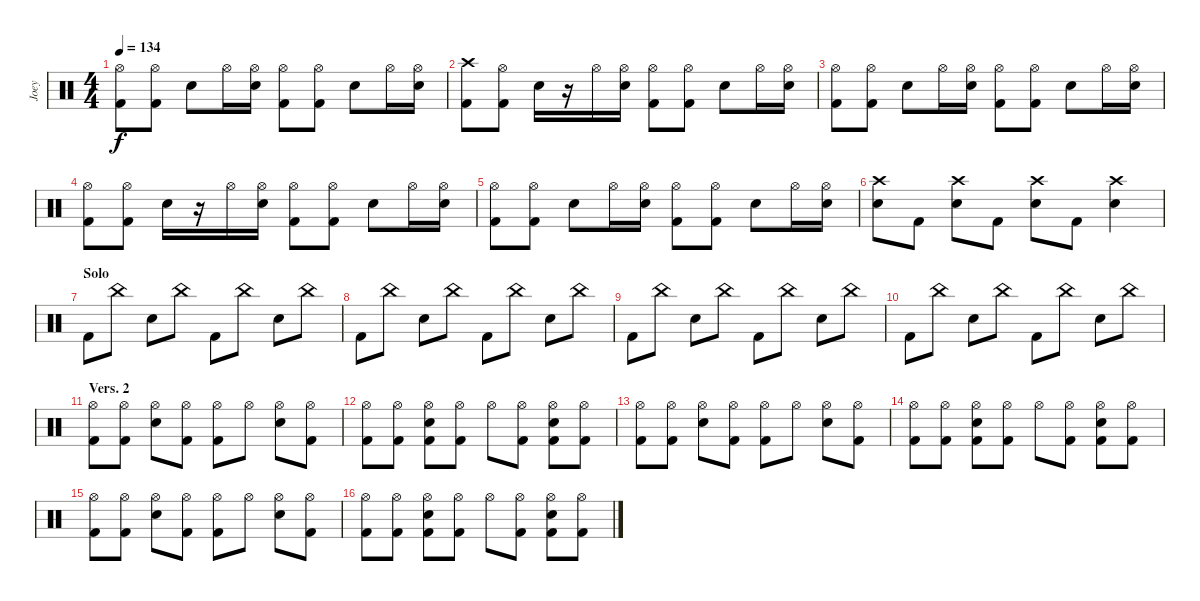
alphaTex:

\track ("Joey" "Joey") {instrument percussion}
\staff {score}
\articulation defaults
\ts (4 4)
\tempo 134
\clef neutral
\ks c
("Hi-Hat (open)" "Kick (hit) 2").8{dy f} ("Hi-Hat (open)" "Kick (hit) 2").8 "Electric Snare (hit)".8 "Hi-Hat (open)".16 ("Hi-Hat (open)" "Electric Snare (hit)").16 ("Hi-Hat (open)" "Kick (hit) 2").8 ("Hi-Hat (open)" "Kick (hit) 2").8 "Electric Snare (hit)".8 "Hi-Hat (open)".16 ("Hi-Hat (open)" "Electric Snare (hit)").16 |
("Crash high (hit)" "Kick (hit) 2").8 ("Hi-Hat (open)" "Kick (hit) 2").8 "Electric Snare (hit)".16 r.16 "Hi-Hat (open)".16 ("Hi-Hat (open)" "Electric Snare (hit)").16 ("Hi-Hat (open)" "Kick (hit) 2").8 ("Hi-Hat (open)" "Kick (hit) 2").8 "Electric Snare (hit)".8 "Hi-Hat (open)".16 ("Hi-Hat (open)" "Electric Snare (hit)").16 |
("Hi-Hat (open)" "Kick (hit) 2").8 ("Hi-Hat (open)" "Kick (hit) 2").8 "Electric Snare (hit)".8 "Hi-Hat (open)".16 ("Hi-Hat (open)" "Electric Snare (hit)").16 ("Hi-Hat (open)" "Kick (hit) 2").8 ("Hi-Hat (open)" "Kick (hit) 2").8 "Electric Snare (hit)".8 "Hi-Hat (open)".16 ("Hi-Hat (open)" "Electric Snare (hit)").16 |
("Hi-Hat (open)" "Kick (hit) 2").8 ("Hi-Hat (open)" "Kick (hit) 2").8 "Electric Snare (hit)".16 r.16 "Hi-Hat (open)".16 ("Hi-Hat (open)" "Electric Snare (hit)").16 ("Hi-Hat (open)" "Kick (hit) 2").8 ("Hi-Hat (open)" "Kick (hit) 2").8 "Electric Snare (hit)".8 "Hi-Hat (open)".16 ("Hi-Hat (open)" "Electric Snare (hit)").16 |
("Hi-Hat (open)" "Kick (hit) 2").8 ("Hi-Hat (open)" "Kick (hit) 2").8 "Electric Snare (hit)".8 "Hi-Hat (open)".16 ("Hi-Hat (open)" "Electric Snare (hit)").16 ("Hi-Hat (open)" "Kick (hit) 2").8 ("Hi-Hat (open)" "Kick (hit) 2").8 "Electric Snare (hit)".8 "Hi-Hat (open)".16 ("Hi-Hat (open)" "Electric Snare (hit)").16 |
("Crash high (hit)" "Electric Snare (hit)").8 "Kick (hit) 2".8 ("Crash high (hit)" "Electric Snare (hit)").8 "Kick (hit) 2".8 ("Crash high (hit)" "Electric Snare (hit)").8 "Kick (hit) 2".8 ("Crash high (hit)" "Electric Snare (hit)").4 |
\section ("" "Solo")
"Kick (hit) 2".8 "China (hit)".8 "Electric Snare (hit)".8 "China (hit)".8 "Kick (hit) 2".8 "China (hit)".8 "Electric Snare (hit)".8 "China (hit)".8 |
"Kick (hit) 2".8 "China (hit)".8 "Electric Snare (hit)".8 "China (hit)".8 "Kick (hit) 2".8 "China (hit)".8 "Electric Snare (hit)".8 "China (hit)".8 |
"Kick (hit) 2".8 "China (hit)".8 "Electric Snare (hit)".8 "China (hit)".8 "Kick (hit) 2".8 "China (hit)".8 "Electric Snare (hit)".8 "China (hit)".8 |
"Kick (hit) 2".8 "China (hit)".8 "Electric Snare (hit)".8 "China (hit)".8 "Kick (hit) 2".8 "China (hit)".8 "Electric Snare (hit)".8 "China (hit)".8 |
\section ("" "Vers. 2")
("Hi-Hat (open)" "Kick (hit) 2").8 ("Hi-Hat (open)" "Kick (hit) 2").8 ("Hi-Hat (open)" "Electric Snare (hit)").8 ("Hi-Hat (open)" "Kick (hit) 2").8 ("Hi-Hat (open)" "Kick (hit) 2").8 "Hi-Hat (open)".8 ("Hi-Hat (open)" "Electric Snare (hit)").8 ("Hi-Hat (open)" "Kick (hit) 2").8 |
\section ("" "")
("Hi-Hat (open)" "Kick (hit) 2").8 ("Hi-Hat (open)" "Kick (hit) 2").8 ("Hi-Hat (open)" "Electric Snare (hit)" "Kick (hit) 2").8 ("Hi-Hat (open)" "Kick (hit) 2").8 "Hi-Hat (open)".8 ("Hi-Hat (open)" "Kick (hit) 2").8 ("Hi-Hat (open)" "Electric Snare (hit)" "Kick (hit) 2").8 ("Hi-Hat (open)" "Kick (hit) 2").8 |
("Hi-Hat (open)" "Kick (hit) 2").8 ("Hi-Hat (open)" "Kick (hit) 2").8 ("Hi-Hat (open)" "Electric Snare (hit)").8 ("Hi-Hat (open)" "Kick (hit) 2").8 ("Hi-Hat (open)" "Kick (hit) 2").8 "Hi-Hat (open)".8 ("Hi-Hat (open)" "Electric Snare (hit)").8 ("Hi-Hat (open)" "Kick (hit) 2").8 |
("Hi-Hat (open)" "Kick (hit) 2").8 ("Hi-Hat (open)" "Kick (hit) 2").8 ("Hi-Hat (open)" "Electric Snare (hit)" "Kick (hit) 2").8 ("Hi-Hat (open)" "Kick (hit) 2").8 "Hi-Hat (open)".8 ("Hi-Hat (open)" "Kick (hit) 2").8 ("Hi-Hat (open)" "Electric Snare (hit)" "Kick (hit) 2").8 ("Hi-Hat (open)" "Kick (hit) 2").8 |
("Hi-Hat (open)" "Kick (hit) 2").8 ("Hi-Hat (open)" "Kick (hit) 2").8 ("Hi-Hat (open)" "Electric Snare (hit)").8 ("Hi-Hat (open)" "Kick (hit) 2").8 ("Hi-Hat (open)" "Kick (hit) 2").8 "Hi-Hat (open)".8 ("Hi-Hat (open)" "Electric Snare (hit)").8 ("Hi-Hat (open)" "Kick (hit) 2").8 |
("Hi-Hat (open)" "Kick (hit) 2").8 ("Hi-Hat (open)" "Kick (hit) 2").8 ("Hi-Hat (open)" "Electric Snare (hit)" "Kick (hit) 2").8 ("Hi-Hat (open)" "Kick (hit) 2").8 "Hi-Hat (open)".8 ("Hi-Hat (open)" "Kick (hit) 2").8 ("Hi-Hat (open)" "Electric Snare (hit)" "Kick (hit) 2").8 ("Hi-Hat (open)" "Kick (hit) 2").8
